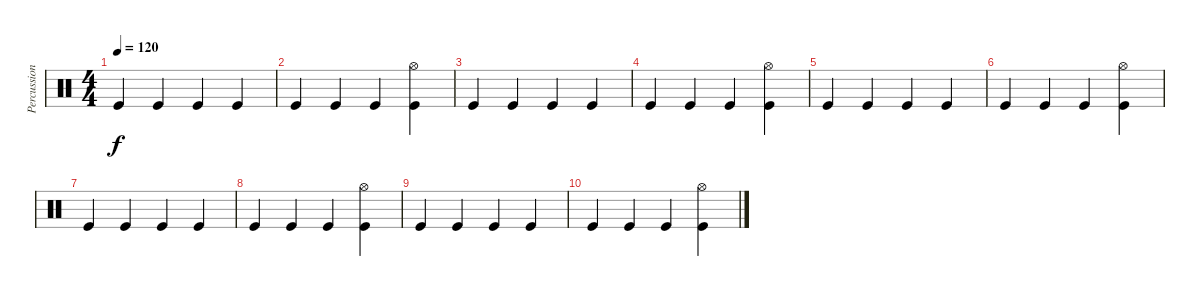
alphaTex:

\track ("Percussion" "Percussion") {instrument percussion}
\staff {score}
\articulation defaults
\ts (4 4)
\tempo 120
\clef neutral
\ks c "Kick (hit)".4{dy f} "Kick (hit)".4 "Kick (hit)".4 "Kick (hit)".4
|
"Kick (hit)".4 "Kick (hit)".4 "Kick (hit)".4 ("Hi-Hat (open)" "Kick (hit)").4 |
"Kick (hit)".4 "Kick (hit)".4 "Kick (hit)".4 "Kick (hit)".4 |
"Kick (hit)".4 "Kick (hit)".4 "Kick (hit)".4 ("Hi-Hat (open)" "Kick (hit)").4 |
"Kick (hit)".4 "Kick (hit)".4 "Kick (hit)".4 "Kick (hit)".4 |
"Kick (hit)".4 "Kick (hit)".4 "Kick (hit)".4 ("Hi-Hat (open)" "Kick (hit)").4 |
"Kick (hit)".4 "Kick (hit)".4 "Kick (hit)".4 "Kick (hit)".4 |
"Kick (hit)".4 "Kick (hit)".4 "Kick (hit)".4 ("Hi-Hat (open)" "Kick (hit)").4 |
"Kick (hit)".4 "Kick (hit)".4 "Kick (hit)".4 "Kick (hit)".4 |
"Kick (hit)".4 "Kick (hit)".4 "Kick (hit)".4 ("Hi-Hat (open)" "Kick (hit)").4
